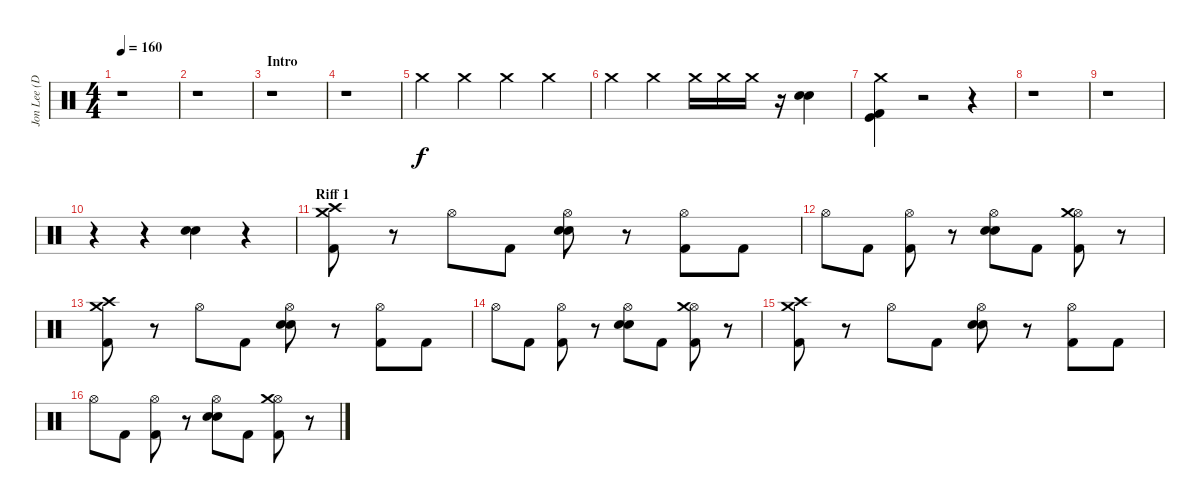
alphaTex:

\track ("Jon Lee (Drums)" "Jon Lee (D") {instrument percussion}
\staff {score}
\articulation defaults
\ts (4 4)
\tempo 160
\clef neutral
\ks c
r.1{dy f} |
r.1 |
\section ("" "Intro")
r.1 |
r.1 |
"Crash medium (hit)".4{volume 8} "Crash medium (hit)".4 "Crash medium (hit)".4 "Crash medium (hit)".4 |
"Crash medium (hit)".4 "Crash medium (hit)".4 "Crash medium (hit)".16 "Crash medium (hit)".16 "Crash medium (hit)".16{volume 11} r.16 ("Snare (hit) 2" "Electric Snare (hit)").4 |
("Crash medium (hit)" "Kick (hit) 2" "Kick (hit)").4 r.2 r.4 |
r.1 |
r.1 |
r.4 r.4 ("Snare (hit) 2" "Electric Snare (hit)").4 r.4 |
\section ("" "Riff 1")
("Crash high (hit)" "Crash medium (hit)" "Kick (hit) 2").8 r.8 "Hi-Hat (open)".8 "Kick (hit) 2".8 ("Hi-Hat (open)" "Electric Snare (hit)" "Snare (hit) 2").8 r.8 ("Hi-Hat (open)" "Kick (hit) 2").8 "Kick (hit) 2".8 |
"Hi-Hat (open)".8 "Kick (hit) 2".8 ("Hi-Hat (open)" "Kick (hit) 2").8 r.8 ("Hi-Hat (open)" "Electric Snare (hit)" "Snare (hit) 2").8 "Kick (hit) 2".8 ("Hi-Hat (open)" "Crash medium (hit)" "Kick (hit) 2").8 r.8 |
("Crash high (hit)" "Crash medium (hit)" "Kick (hit) 2").8 r.8 "Hi-Hat (open)".8 "Kick (hit) 2".8 ("Hi-Hat (open)" "Electric Snare (hit)" "Snare (hit) 2").8 r.8 ("Hi-Hat (open)" "Kick (hit) 2").8 "Kick (hit) 2".8 |
"Hi-Hat (open)".8 "Kick (hit) 2".8 ("Hi-Hat (open)" "Kick (hit) 2").8 r.8 ("Hi-Hat (open)" "Electric Snare (hit)" "Snare (hit) 2").8 "Kick (hit) 2".8 ("Hi-Hat (open)" "Crash medium (hit)" "Kick (hit) 2").8 r.8 |
("Crash high (hit)" "Crash medium (hit)" "Kick (hit) 2").8 r.8 "Hi-Hat (open)".8 "Kick (hit) 2".8 ("Hi-Hat (open)" "Electric Snare (hit)" "Snare (hit) 2").8 r.8 ("Hi-Hat (open)" "Kick (hit) 2").8 "Kick (hit) 2".8 |
"Hi-Hat (open)".8 "Kick (hit) 2".8 ("Hi-Hat (open)" "Kick (hit) 2").8 r.8 ("Hi-Hat (open)" "Electric Snare (hit)" "Snare (hit) 2").8 "Kick (hit) 2".8 ("Hi-Hat (open)" "Crash medium (hit)" "Kick (hit) 2").8 r.8
